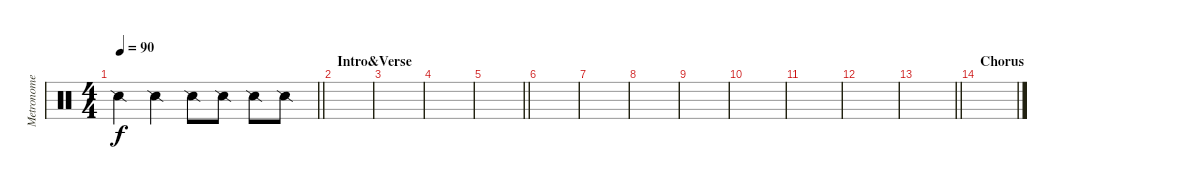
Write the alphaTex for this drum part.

\track ("Metronome" "Metronome") {instrument percussion}
\staff {score}
\articulation defaults
\ts (4 4)
\tempo 90
\clef neutral
\barLineRight lightlight
\ks c "Snare (side stick) 2".4{dy f} "Snare (side stick) 2".4 "Snare (side stick) 2".8 "Snare (side stick) 2".8 "Snare (side stick) 2".8 "Snare (side stick) 2".8
|
\section ("" "Intro&Verse")
|
|
|
\barLineRight lightlight
|
|
|
|
|
|
|
|
\barLineRight lightlight
|
\section ("" "Chorus")
